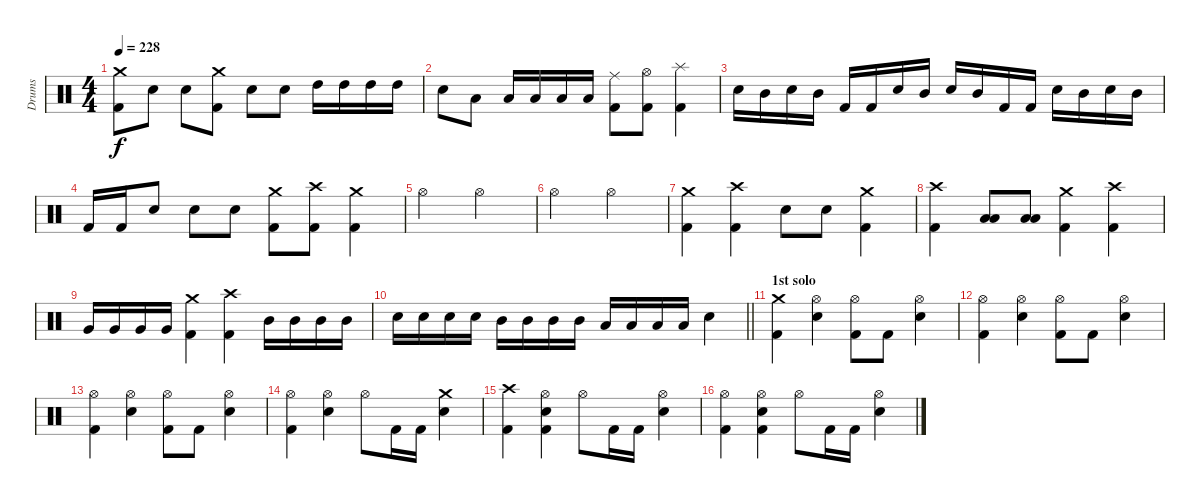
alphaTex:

\track ("Drums" "Drums") {instrument percussion}
\staff {score}
\articulation defaults
\ts (4 4)
\tempo 228
\clef neutral
\ks c
("Crash medium (hit)" "Kick (hit) 2").8{dy f} "Electric Snare (hit)".8 "Electric Snare (hit)".8 ("Kick (hit) 2" "Crash medium (hit)").8 "Electric Snare (hit)".8 "Electric Snare (hit)".8 "High Tom (hit)".16 "High Tom (hit)".16 "High Tom (hit)".16 "High Tom (hit)".16 |
"Electric Snare (hit)".8 "Low Tom (hit)".8 "Low Tom (hit)".16 "Low Tom (hit)".16 "Low Tom (hit)".16 "Low Tom (hit)".16 ("Ride (middle)" "Kick (hit) 2").8 ("Hi-Hat (open)" "Kick (hit) 2").8 ("Splash (hit)" "Kick (hit) 2").4 |
"Electric Snare (hit)".16 "Mid Tom (hit)".16 "Electric Snare (hit)".16 "Mid Tom (hit)".16 "Kick (hit) 2".16 "Kick (hit) 2".16 "Electric Snare (hit)".16 "Mid Tom (hit)".16 "Electric Snare (hit)".16 "Mid Tom (hit)".16 "Kick (hit) 2".16 "Kick (hit) 2".16 "Electric Snare (hit)".16 "Mid Tom (hit)".16 "Electric Snare (hit)".16 "Mid Tom (hit)".16 |
"Kick (hit) 2".16 "Kick (hit) 2".16 "Electric Snare (hit)".8 "Electric Snare (hit)".8 "Electric Snare (hit)".8 ("Crash medium (hit)" "Kick (hit) 2").8 ("Crash high (hit)" "Kick (hit) 2").8 ("Crash medium (hit)" "Kick (hit) 2").4 |
"Hi-Hat (open)".2 "Hi-Hat (open)".2 |
"Hi-Hat (open)".2 "Hi-Hat (open)".2 |
("Kick (hit) 2" "Crash medium (hit)").4 ("Crash high (hit)" "Kick (hit) 2").4 "Electric Snare (hit)".8 "Electric Snare (hit)".8 ("Crash medium (hit)" "Kick (hit) 2").4 |
("Crash high (hit)" "Kick (hit) 2").4 ("Low Tom (hit)" "Low Floor Tom (hit)").8 ("Low Tom (hit)" "Low Floor Tom (hit)").8 ("Kick (hit) 2" "Crash medium (hit)").4 ("Crash high (hit)" "Kick (hit) 2").4 |
"Very Low Tom (hit)".16 "Very Low Tom (hit)".16 "Very Low Tom (hit)".16 "Very Low Tom (hit)".16 ("Kick (hit) 2" "Crash medium (hit)").4 ("Crash high (hit)" "Kick (hit) 2").4 "Mid Tom (hit)".16 "Mid Tom (hit)".16 "Mid Tom (hit)".16 "Mid Tom (hit)".16 |
\barLineRight lightlight "Electric Snare (hit)".16 "Electric Snare (hit)".16 "Electric Snare (hit)".16 "Electric Snare (hit)".16 "Mid Tom (hit)".16 "Mid Tom (hit)".16 "Mid Tom (hit)".16 "Mid Tom (hit)".16 "Low Tom (hit)".16 "Low Tom (hit)".16 "Low Tom (hit)".16 "Low Tom (hit)".16 "Electric Snare (hit)".4
|
\section ("" "1st solo")
("Crash medium (hit)" "Kick (hit) 2").4 ("Electric Snare (hit)" "Hi-Hat (open)").4 ("Hi-Hat (open)" "Kick (hit) 2").8 "Kick (hit) 2".8 ("Hi-Hat (open)" "Electric Snare (hit)").4 |
("Hi-Hat (open)" "Kick (hit) 2").4 ("Electric Snare (hit)" "Hi-Hat (open)").4 ("Hi-Hat (open)" "Kick (hit) 2").8 "Kick (hit) 2".8 ("Hi-Hat (open)" "Electric Snare (hit)").4 |
("Hi-Hat (open)" "Kick (hit) 2").4 ("Electric Snare (hit)" "Hi-Hat (open)").4 ("Hi-Hat (open)" "Kick (hit) 2").8 "Kick (hit) 2".8 ("Hi-Hat (open)" "Electric Snare (hit)").4 |
("Hi-Hat (open)" "Kick (hit) 2").4 ("Electric Snare (hit)" "Hi-Hat (open)").4 "Hi-Hat (open)".8 "Kick (hit) 2".16 "Kick (hit) 2".16 ("Crash medium (hit)" "Electric Snare (hit)").4 |
("Crash high (hit)" "Kick (hit) 2").4 ("Electric Snare (hit)" "Kick (hit) 2" "Hi-Hat (open)").4 "Hi-Hat (open)".8 "Kick (hit) 2".16 "Kick (hit) 2".16 ("Hi-Hat (open)" "Electric Snare (hit)").4 |
("Hi-Hat (open)" "Kick (hit) 2").4 ("Electric Snare (hit)" "Kick (hit) 2" "Hi-Hat (open)").4 "Hi-Hat (open)".8 "Kick (hit) 2".16 "Kick (hit) 2".16 ("Hi-Hat (open)" "Electric Snare (hit)").4
